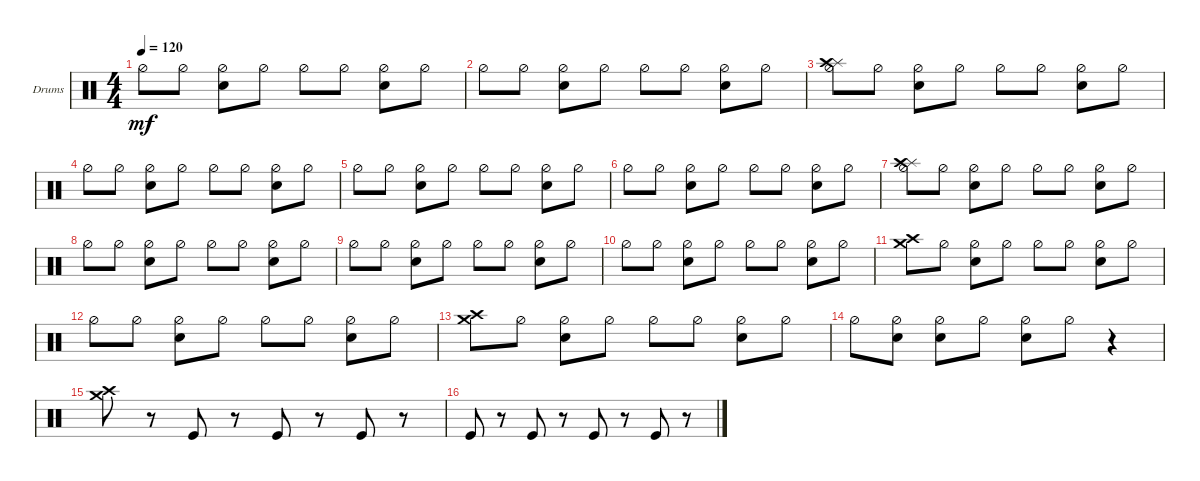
\defaultSystemsLayout 4
\bracketExtendMode groupsimilarinstruments
\firstSystemTrackNameOrientation horizontal
\otherSystemsTrackNameOrientation horizontal
\track ("Drums" "Drums") {instrument percussion}
\staff {score}
\articulation defaults
\ts (4 4)
\tempo 120
\clef neutral
\scale
0.333333
\ks c "Hi-Hat (half)".8{dy mf} "Hi-Hat (half)".8
("Snare (hit) 2" "Hi-Hat (half)").8 "Hi-Hat (half)".8 "Hi-Hat (half)".8 "Hi-Hat (half)".8 ("Snare (hit) 2" "Hi-Hat (half)").8 "Hi-Hat (half)".8 |
\scale
0.333333 "Hi-Hat (half)".8 "Hi-Hat (half)".8 ("Snare (hit) 2" "Hi-Hat (half)").8 "Hi-Hat (half)".8 "Hi-Hat (half)".8 "Hi-Hat (half)".8 ("Snare (hit) 2" "Hi-Hat (half)").8 "Hi-Hat (half)".8 |
\scale
0.333333 ("Hi-Hat (half)" "Splash (hit)" "Crash high (hit)").8 "Hi-Hat (half)".8 ("Snare (hit) 2" "Hi-Hat (half)").8 "Hi-Hat (half)".8 "Hi-Hat (half)".8 "Hi-Hat (half)".8 ("Snare (hit) 2" "Hi-Hat (half)").8 "Hi-Hat (half)".8 |
\scale
0.333333 "Hi-Hat (half)".8 "Hi-Hat (half)".8 ("Snare (hit) 2" "Hi-Hat (half)").8 "Hi-Hat (half)".8 "Hi-Hat (half)".8 "Hi-Hat (half)".8 ("Snare (hit) 2" "Hi-Hat (half)").8 "Hi-Hat (half)".8 |
\scale
0.333333 "Hi-Hat (half)".8 "Hi-Hat (half)".8 ("Snare (hit) 2" "Hi-Hat (half)").8 "Hi-Hat (half)".8 "Hi-Hat (half)".8 "Hi-Hat (half)".8 ("Snare (hit) 2" "Hi-Hat (half)").8 "Hi-Hat (half)".8 |
\scale
0.333333 "Hi-Hat (half)".8 "Hi-Hat (half)".8 ("Snare (hit) 2" "Hi-Hat (half)").8 "Hi-Hat (half)".8 "Hi-Hat (half)".8 "Hi-Hat (half)".8 ("Snare (hit) 2" "Hi-Hat (half)").8 "Hi-Hat (half)".8 |
\scale
0.333333 ("Hi-Hat (half)" "Splash (hit)" "Crash high (hit)").8 "Hi-Hat (half)".8 ("Snare (hit) 2" "Hi-Hat (half)").8 "Hi-Hat (half)".8 "Hi-Hat (half)".8 "Hi-Hat (half)".8 ("Snare (hit) 2" "Hi-Hat (half)").8 "Hi-Hat (half)".8 |
\scale
0.333333 "Hi-Hat (half)".8 "Hi-Hat (half)".8 ("Snare (hit) 2" "Hi-Hat (half)").8 "Hi-Hat (half)".8 "Hi-Hat (half)".8 "Hi-Hat (half)".8 ("Snare (hit) 2" "Hi-Hat (half)").8 "Hi-Hat (half)".8 |
\scale
0.333333 "Hi-Hat (half)".8 "Hi-Hat (half)".8 ("Snare (hit) 2" "Hi-Hat (half)").8 "Hi-Hat (half)".8 "Hi-Hat (half)".8 "Hi-Hat (half)".8 ("Snare (hit) 2" "Hi-Hat (half)").8 "Hi-Hat (half)".8 |
"Hi-Hat (half)".8 "Hi-Hat (half)".8 ("Snare (hit) 2" "Hi-Hat (half)").8 "Hi-Hat (half)".8 "Hi-Hat (half)".8 "Hi-Hat (half)".8 ("Snare (hit) 2" "Hi-Hat (half)").8 "Hi-Hat (half)".8 |
("Crash high (hit)" "Crash medium (hit)").8 "Hi-Hat (half)".8 ("Snare (hit) 2" "Hi-Hat (half)").8 "Hi-Hat (half)".8 "Hi-Hat (half)".8 "Hi-Hat (half)".8 ("Snare (hit) 2" "Hi-Hat (half)").8 "Hi-Hat (half)".8 |
"Hi-Hat (half)".8 "Hi-Hat (half)".8 ("Snare (hit) 2" "Hi-Hat (half)").8 "Hi-Hat (half)".8 "Hi-Hat (half)".8 "Hi-Hat (half)".8 ("Snare (hit) 2" "Hi-Hat (half)").8 "Hi-Hat (half)".8 |
("Crash medium (hit)" "Crash high (hit)").8 "Hi-Hat (half)".8 ("Snare (hit) 2" "Hi-Hat (half)").8 "Hi-Hat (half)".8 "Hi-Hat (half)".8 "Hi-Hat (half)".8 ("Snare (hit) 2" "Hi-Hat (half)").8 "Hi-Hat (half)".8 |
"Hi-Hat (half)".8 ("Snare (hit) 2" "Hi-Hat (half)").8 ("Snare (hit) 2" "Hi-Hat (half)").8 "Hi-Hat (half)".8 ("Snare (hit) 2" "Hi-Hat (half)").8 "Hi-Hat (half)".8 r.4 |
("Crash high (hit)" "Crash medium (hit)").8 r.8 "Kick (hit)".8 r.8 "Kick (hit)".8 r.8 "Kick (hit)".8 r.8 |
"Kick (hit)".8 r.8 "Kick (hit)".8 r.8 "Kick (hit)".8 r.8 "Kick (hit)".8 r.8
